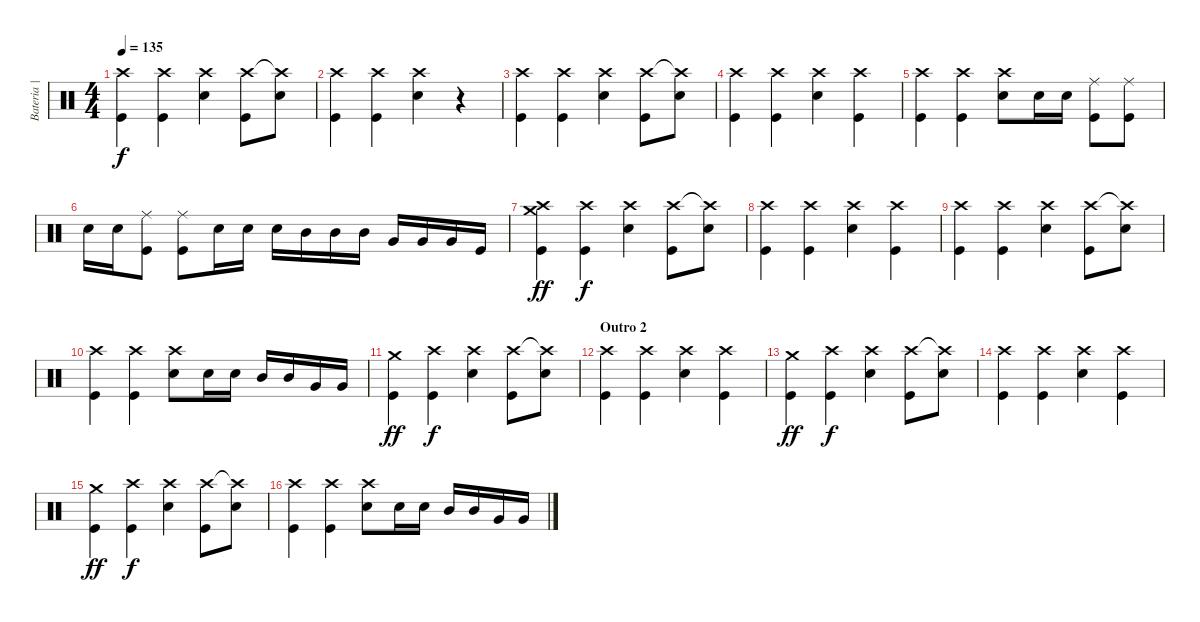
\track ("Bateria | Bernardo" "Bateria | ") {instrument percussion}
\staff {score}
\articulation defaults
\ts (4 4)
\tempo 135
\clef neutral
\ks c
("Crash high (hit)" "Kick (hit)").4{dy f} ("Crash high (hit)" "Kick (hit)").4 ("Crash high (hit)" "Snare (hit) 2").4 ("Crash high (hit)" "Kick (hit)").8 ("Crash high (hit)"{t} "Snare (hit) 2").8 |
("Crash high (hit)" "Kick (hit)").4 ("Crash high (hit)" "Kick (hit)").4 ("Crash high (hit)" "Snare (hit) 2").4 r.4{volume 0} |
("Crash high (hit)" "Kick (hit)").4{volume 15} ("Crash high (hit)" "Kick (hit)").4 ("Crash high (hit)" "Snare (hit) 2").4 ("Crash high (hit)" "Kick (hit)").8 ("Crash high (hit)"{t} "Snare (hit) 2").8 |
("Crash high (hit)" "Kick (hit)").4 ("Crash high (hit)" "Kick (hit)").4 ("Crash high (hit)" "Snare (hit) 2").4 ("Crash high (hit)" "Kick (hit)").4 |
("Crash high (hit)" "Kick (hit)").4 ("Crash high (hit)" "Kick (hit)").4 ("Crash high (hit)" "Snare (hit) 2").8 "Snare (hit) 2".16 "Snare (hit) 2".16 ("Ride (middle)" "Kick (hit)").8 ("Ride (middle)" "Kick (hit)").8 |
"Snare (hit) 2".16 "Snare (hit) 2".16 ("Ride (middle)" "Kick (hit)").8 ("Ride (middle)" "Kick (hit)").8 "Snare (hit) 2".16 "Snare (hit) 2".16 "Snare (hit) 2".16 "Mid Tom (hit)".16 "Mid Tom (hit)".16 "Mid Tom (hit)".16 "Very Low Tom (hit)".16 "Very Low Tom (hit)".16 "Very Low Tom (hit)".16 "Kick (hit)".16 |
("Crash medium (hit)" "Crash high (hit)" "Kick (hit)").4{dy ff} ("Crash high (hit)" "Kick (hit)").4{dy f} ("Crash high (hit)" "Snare (hit) 2").4 ("Crash high (hit)" "Kick (hit)").8 ("Crash high (hit)"{t} "Snare (hit) 2").8 |
("Crash high (hit)" "Kick (hit)").4 ("Crash high (hit)" "Kick (hit)").4 ("Crash high (hit)" "Snare (hit) 2").4 ("Crash high (hit)" "Kick (hit)").4 |
("Crash high (hit)" "Kick (hit)").4 ("Crash high (hit)" "Kick (hit)").4 ("Crash high (hit)" "Snare (hit) 2").4 ("Crash high (hit)" "Kick (hit)").8 ("Crash high (hit)"{t} "Snare (hit) 2").8 |
("Crash high (hit)" "Kick (hit)").4 ("Crash high (hit)" "Kick (hit)").4 ("Crash high (hit)" "Snare (hit) 2").8 "Snare (hit) 2".16 "Snare (hit) 2".16 "Mid Tom (hit)".16 "Mid Tom (hit)".16 "Very Low Tom (hit)".16 "Very Low Tom (hit)".16 |
("Crash medium (hit)" "Kick (hit)").4{dy ff} ("Crash high (hit)" "Kick (hit)").4{dy f} ("Crash high (hit)" "Snare (hit) 2").4 ("Crash high (hit)" "Kick (hit)").8 ("Crash high (hit)"{t} "Snare (hit) 2").8 |
\section ("" "Outro 2")
("Crash high (hit)" "Kick (hit)").4 ("Crash high (hit)" "Kick (hit)").4 ("Crash high (hit)" "Snare (hit) 2").4 ("Crash high (hit)" "Kick (hit)").4 |
("Crash medium (hit)" "Kick (hit)").4{dy ff} ("Crash high (hit)" "Kick (hit)").4{dy f} ("Crash high (hit)" "Snare (hit) 2").4 ("Crash high (hit)" "Kick (hit)").8 ("Crash high (hit)"{t} "Snare (hit) 2").8 |
("Crash high (hit)" "Kick (hit)").4 ("Crash high (hit)" "Kick (hit)").4 ("Crash high (hit)" "Snare (hit) 2").4 ("Crash high (hit)" "Kick (hit)").4 |
("Crash medium (hit)" "Kick (hit)").4{dy ff} ("Crash high (hit)" "Kick (hit)").4{dy f} ("Crash high (hit)" "Snare (hit) 2").4 ("Crash high (hit)" "Kick (hit)").8 ("Crash high (hit)"{t} "Snare (hit) 2").8 |
("Crash high (hit)" "Kick (hit)").4 ("Crash high (hit)" "Kick (hit)").4 ("Crash high (hit)" "Snare (hit) 2").8 "Snare (hit) 2".16 "Snare (hit) 2".16 "Mid Tom (hit)".16 "Mid Tom (hit)".16 "Very Low Tom (hit)".16 "Very Low Tom (hit)".16
